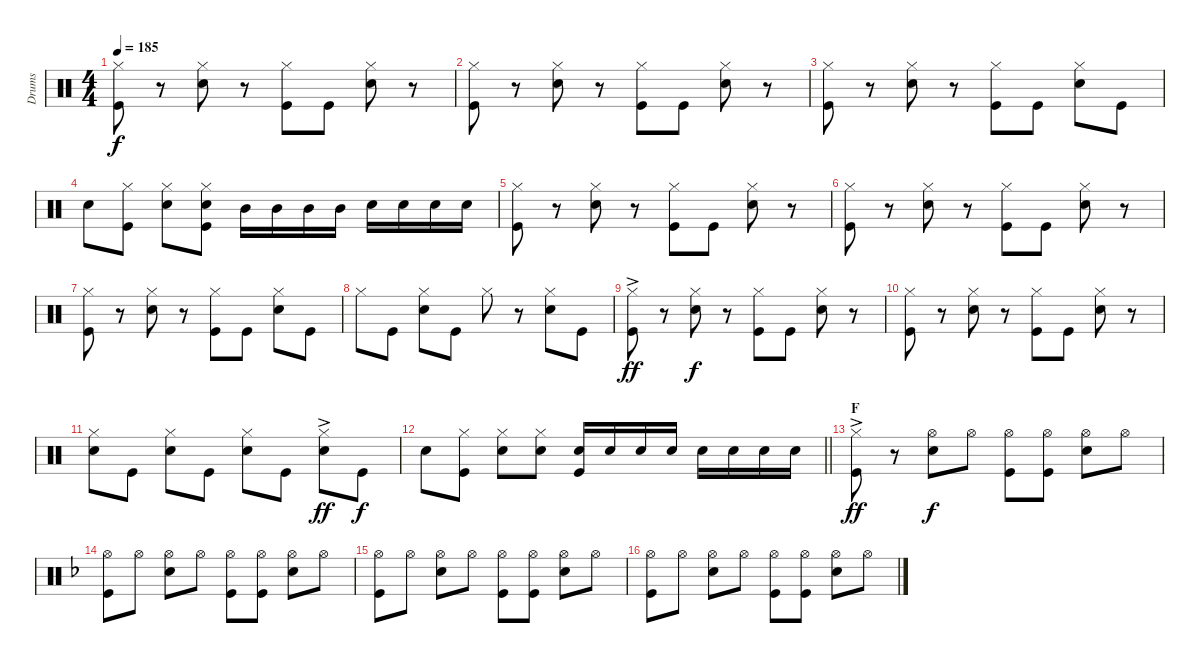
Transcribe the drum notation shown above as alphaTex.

\track ("Drums" "Drums") {instrument percussion}
\staff {score}
\articulation defaults
\ts (4 4)
\tempo 185
\clef neutral
\ks c
("Hi-Hat (closed)" "Kick (hit)").8{dy f} r.8 ("Hi-Hat (closed)" "Snare (hit) 2").8 r.8 ("Hi-Hat (closed)" "Kick (hit)").8 "Kick (hit)".8 ("Hi-Hat (closed)" "Snare (hit) 2").8 r.8 |
("Hi-Hat (closed)" "Kick (hit)").8 r.8 ("Hi-Hat (closed)" "Snare (hit) 2").8 r.8 ("Hi-Hat (closed)" "Kick (hit)").8 "Kick (hit)".8 ("Hi-Hat (closed)" "Snare (hit) 2").8 r.8 |
("Hi-Hat (closed)" "Kick (hit)").8 r.8 ("Hi-Hat (closed)" "Snare (hit) 2").8 r.8 ("Hi-Hat (closed)" "Kick (hit)").8 "Kick (hit)".8 ("Hi-Hat (closed)" "Snare (hit) 2").8 "Kick (hit)".8 |
"Snare (hit) 2".8 ("Hi-Hat (closed)" "Kick (hit)").8 ("Hi-Hat (closed)" "Snare (hit) 2").8 ("Snare (hit) 2" "Kick (hit)" "Hi-Hat (closed)").8 "Mid Tom (hit)".16 "Mid Tom (hit)".16 "Mid Tom (hit)".16 "Mid Tom (hit)".16 "Snare (hit) 2".16 "Snare (hit) 2".16 "Snare (hit) 2".16 "Snare (hit) 2".16 |
("Kick (hit)" "Hi-Hat (closed)").8 r.8 ("Hi-Hat (closed)" "Snare (hit) 2").8 r.8 ("Hi-Hat (closed)" "Kick (hit)").8 "Kick (hit)".8 ("Snare (hit) 2" "Hi-Hat (closed)").8 r.8 |
("Kick (hit)" "Hi-Hat (closed)").8 r.8 ("Hi-Hat (closed)" "Snare (hit) 2").8 r.8 ("Hi-Hat (closed)" "Kick (hit)").8 "Kick (hit)".8 ("Snare (hit) 2" "Hi-Hat (closed)").8 r.8 |
("Kick (hit)" "Hi-Hat (closed)").8 r.8 ("Hi-Hat (closed)" "Snare (hit) 2").8 r.8 ("Hi-Hat (closed)" "Kick (hit)").8 "Kick (hit)".8 ("Snare (hit) 2" "Hi-Hat (closed)").8 "Kick (hit)".8 |
"Hi-Hat (closed)".8 "Kick (hit)".8 ("Snare (hit) 2" "Hi-Hat (closed)").8 "Kick (hit)".8 "Hi-Hat (closed)".8 r.8 ("Hi-Hat (closed)" "Snare (hit) 2").8 "Kick (hit)".8 |
("Hi-Hat (closed)"{ac} "Kick (hit)").8{dy ff} r.8 ("Snare (hit) 2" "Hi-Hat (closed)").8{dy f} r.8 ("Hi-Hat (closed)" "Kick (hit)").8 "Kick (hit)".8 ("Snare (hit) 2" "Hi-Hat (closed)").8 r.8 |
("Hi-Hat (closed)" "Kick (hit)").8 r.8 ("Snare (hit) 2" "Hi-Hat (closed)").8 r.8 ("Hi-Hat (closed)" "Kick (hit)").8 "Kick (hit)".8 ("Snare (hit) 2" "Hi-Hat (closed)").8 r.8 |
("Hi-Hat (closed)" "Snare (hit) 2").8 "Kick (hit)".8 ("Snare (hit) 2" "Hi-Hat (closed)").8 "Kick (hit)".8 ("Hi-Hat (closed)" "Snare (hit) 2").8 "Kick (hit)".8 ("Hi-Hat (closed)"{ac} "Snare (hit) 2").8{dy ff} "Kick (hit)".8{dy f} |
\barLineRight lightlight "Snare (hit) 2".8
("Kick (hit)" "Hi-Hat (closed)").8 ("Hi-Hat (closed)" "Snare (hit) 2").8 ("Snare (hit) 2" "Hi-Hat (closed)").8 ("Kick (hit)" "Snare (hit) 2").16 "Snare (hit) 2".16 "Snare (hit) 2".16 "Snare (hit) 2".16 "Snare (hit) 2".16 "Snare (hit) 2".16 "Snare (hit) 2".16 "Snare (hit) 2".16 |
\section ("" "F")
("Hi-Hat (closed)"{ac} "Kick (hit)").8{dy ff} r.8 ("Hi-Hat (open)" "Snare (hit) 2").8{dy f} "Hi-Hat (open)".8 ("Hi-Hat (open)" "Kick (hit)").8 ("Hi-Hat (open)" "Kick (hit)").8 ("Snare (hit) 2" "Hi-Hat (open)").8 "Hi-Hat (open)".8 |
\ks f
("Kick (hit)" "Hi-Hat (open)").8 "Hi-Hat (open)".8 ("Hi-Hat (open)" "Snare (hit) 2").8 "Hi-Hat (open)".8 ("Hi-Hat (open)" "Kick (hit)").8 ("Kick (hit)" "Hi-Hat (open)").8 ("Hi-Hat (open)" "Snare (hit) 2").8 "Hi-Hat (open)".8 |
("Kick (hit)" "Hi-Hat (open)").8 "Hi-Hat (open)".8 ("Hi-Hat (open)" "Snare (hit) 2").8 "Hi-Hat (open)".8 ("Hi-Hat (open)" "Kick (hit)").8 ("Kick (hit)" "Hi-Hat (open)").8 ("Hi-Hat (open)" "Snare (hit) 2").8 "Hi-Hat (open)".8 |
("Kick (hit)" "Hi-Hat (open)").8 "Hi-Hat (open)".8 ("Hi-Hat (open)" "Snare (hit) 2").8 "Hi-Hat (open)".8 ("Hi-Hat (open)" "Kick (hit)").8 ("Kick (hit)" "Hi-Hat (open)").8 ("Hi-Hat (open)" "Snare (hit) 2").8 "Hi-Hat (open)".8
